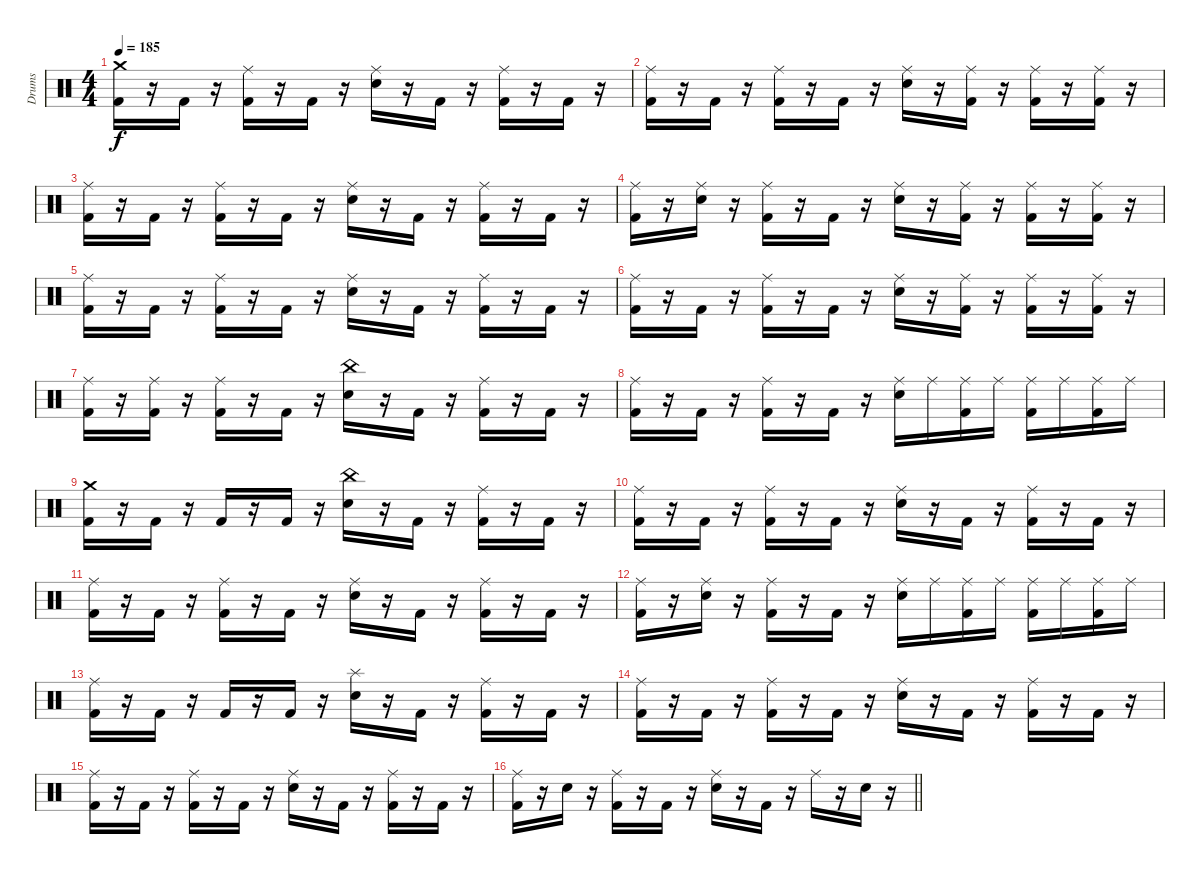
\track ("Drums" "Drums") {solo instrument percussion}
\staff {score}
\articulation defaults
\ts (4 4)
\tempo 185
\clef neutral
\ks c
("Crash medium (hit)" "Kick (hit) 2").16{dy f} r.16 "Kick (hit) 2".16 r.16 ("Ride (middle)" "Kick (hit) 2").16 r.16 "Kick (hit) 2".16 r.16 ("Snare (hit) 2" "Ride (middle)").16 r.16 "Kick (hit) 2".16 r.16 ("Ride (middle)" "Kick (hit) 2").16 r.16 "Kick (hit) 2".16 r.16 |
("Ride (middle)" "Kick (hit) 2").16 r.16 "Kick (hit) 2".16 r.16 ("Ride (middle)" "Kick (hit) 2").16 r.16 "Kick (hit) 2".16 r.16 ("Snare (hit) 2" "Ride (middle)").16 r.16 ("Ride (middle)" "Kick (hit) 2").16 r.16 ("Ride (middle)" "Kick (hit) 2").16 r.16 ("Ride (middle)" "Kick (hit) 2").16 r.16 |
("Ride (middle)" "Kick (hit) 2").16 r.16 "Kick (hit) 2".16 r.16 ("Ride (middle)" "Kick (hit) 2").16 r.16 "Kick (hit) 2".16 r.16 ("Snare (hit) 2" "Ride (middle)").16 r.16 "Kick (hit) 2".16 r.16 ("Ride (middle)" "Kick (hit) 2").16 r.16 "Kick (hit) 2".16 r.16 |
("Ride (middle)" "Kick (hit) 2").16 r.16 ("Snare (hit) 2" "Ride (middle)").16 r.16 ("Ride (middle)" "Kick (hit) 2").16 r.16 "Kick (hit) 2".16 r.16 ("Snare (hit) 2" "Ride (middle)").16 r.16 ("Ride (middle)" "Kick (hit) 2").16 r.16 ("Ride (middle)" "Kick (hit) 2").16 r.16 ("Ride (middle)" "Kick (hit) 2").16 r.16 |
("Ride (middle)" "Kick (hit) 2").16 r.16 "Kick (hit) 2".16 r.16 ("Ride (middle)" "Kick (hit) 2").16 r.16 "Kick (hit) 2".16 r.16 ("Snare (hit) 2" "Ride (middle)").16 r.16 "Kick (hit) 2".16 r.16 ("Ride (middle)" "Kick (hit) 2").16 r.16 "Kick (hit) 2".16 r.16 |
("Ride (middle)" "Kick (hit) 2").16 r.16 "Kick (hit) 2".16 r.16 ("Ride (middle)" "Kick (hit) 2").16 r.16 "Kick (hit) 2".16 r.16 ("Snare (hit) 2" "Ride (middle)").16 r.16 ("Ride (middle)" "Kick (hit) 2").16 r.16 ("Ride (middle)" "Kick (hit) 2").16 r.16 ("Ride (middle)" "Kick (hit) 2").16 r.16 |
("Ride (middle)" "Kick (hit) 2").16 r.16 ("Ride (middle)" "Kick (hit) 2").16 r.16 ("Ride (middle)" "Kick (hit) 2").16 r.16 "Kick (hit) 2".16 r.16 ("China (hit)" "Snare (hit) 2").16 r.16 "Kick (hit) 2".16 r.16 ("Ride (middle)" "Kick (hit) 2").16 r.16 "Kick (hit) 2".16 r.16 |
("Ride (middle)" "Kick (hit) 2").16 r.16 "Kick (hit) 2".16 r.16 ("Ride (middle)" "Kick (hit) 2").16 r.16 "Kick (hit) 2".16 r.16 ("Snare (hit) 2" "Ride (middle)").16 "Ride (middle)".16 ("Ride (middle)" "Kick (hit) 2").16 "Ride (middle)".16 ("Ride (middle)" "Kick (hit) 2").16 "Ride (middle)".16 ("Ride (middle)" "Kick (hit) 2").16 "Ride (middle)".16 |
("Crash medium (hit)" "Kick (hit) 2").16 r.16 "Kick (hit) 2".16 r.16 "Kick (hit) 2".16 r.16 "Kick (hit) 2".16 r.16 ("China (hit)" "Snare (hit) 2").16 r.16 "Kick (hit) 2".16 r.16 ("Ride (middle)" "Kick (hit) 2").16 r.16 "Kick (hit) 2".16 r.16 |
("Ride (middle)" "Kick (hit) 2").16 r.16 "Kick (hit) 2".16 r.16 ("Ride (middle)" "Kick (hit) 2").16 r.16 "Kick (hit) 2".16 r.16 ("Snare (hit) 2" "Ride (middle)").16 r.16 "Kick (hit) 2".16 r.16 ("Ride (middle)" "Kick (hit) 2").16 r.16 "Kick (hit) 2".16 r.16 |
("Ride (middle)" "Kick (hit) 2").16 r.16 "Kick (hit) 2".16 r.16 ("Ride (middle)" "Kick (hit) 2").16 r.16 "Kick (hit) 2".16 r.16 ("Snare (hit) 2" "Ride (middle)").16 r.16 "Kick (hit) 2".16 r.16 ("Ride (middle)" "Kick (hit) 2").16 r.16 "Kick (hit) 2".16 r.16 |
("Ride (middle)" "Kick (hit) 2").16 r.16 ("Snare (hit) 2" "Ride (middle)").16 r.16 ("Ride (middle)" "Kick (hit) 2").16 r.16 "Kick (hit) 2".16 r.16 ("Snare (hit) 2" "Ride (middle)").16 "Ride (middle)".16 ("Ride (middle)" "Kick (hit) 2").16 "Ride (middle)".16 ("Ride (middle)" "Kick (hit) 2").16 "Ride (middle)".16 ("Ride (middle)" "Kick (hit) 2").16 "Ride (middle)".16 |
("Ride (middle)" "Kick (hit) 2").16 r.16 "Kick (hit) 2".16 r.16 "Kick (hit) 2".16 r.16 "Kick (hit) 2".16 r.16 ("Splash (hit)" "Snare (hit) 2").16 r.16 "Kick (hit) 2".16 r.16 ("Ride (middle)" "Kick (hit) 2").16 r.16 "Kick (hit) 2".16 r.16 |
("Ride (middle)" "Kick (hit) 2").16 r.16 "Kick (hit) 2".16 r.16 ("Ride (middle)" "Kick (hit) 2").16 r.16 "Kick (hit) 2".16 r.16 ("Snare (hit) 2" "Ride (middle)").16 r.16 "Kick (hit) 2".16 r.16 ("Ride (middle)" "Kick (hit) 2").16 r.16 "Kick (hit) 2".16 r.16 |
("Ride (middle)" "Kick (hit) 2").16 r.16 "Kick (hit) 2".16 r.16 ("Ride (middle)" "Kick (hit) 2").16 r.16 "Kick (hit) 2".16 r.16 ("Snare (hit) 2" "Ride (middle)").16 r.16 "Kick (hit) 2".16 r.16 ("Ride (middle)" "Kick (hit) 2").16 r.16 "Kick (hit) 2".16 r.16 |
\barLineRight lightlight
("Ride (middle)" "Kick (hit) 2").16 r.16 "Snare (hit) 2".16 r.16 ("Ride (middle)" "Kick (hit) 2").16 r.16 "Kick (hit) 2".16 r.16 ("Snare (hit) 2" "Ride (middle)").16 r.16 "Kick (hit) 2".16 r.16 "Ride (middle)".16 r.16 "Snare (hit) 2".16 r.16
